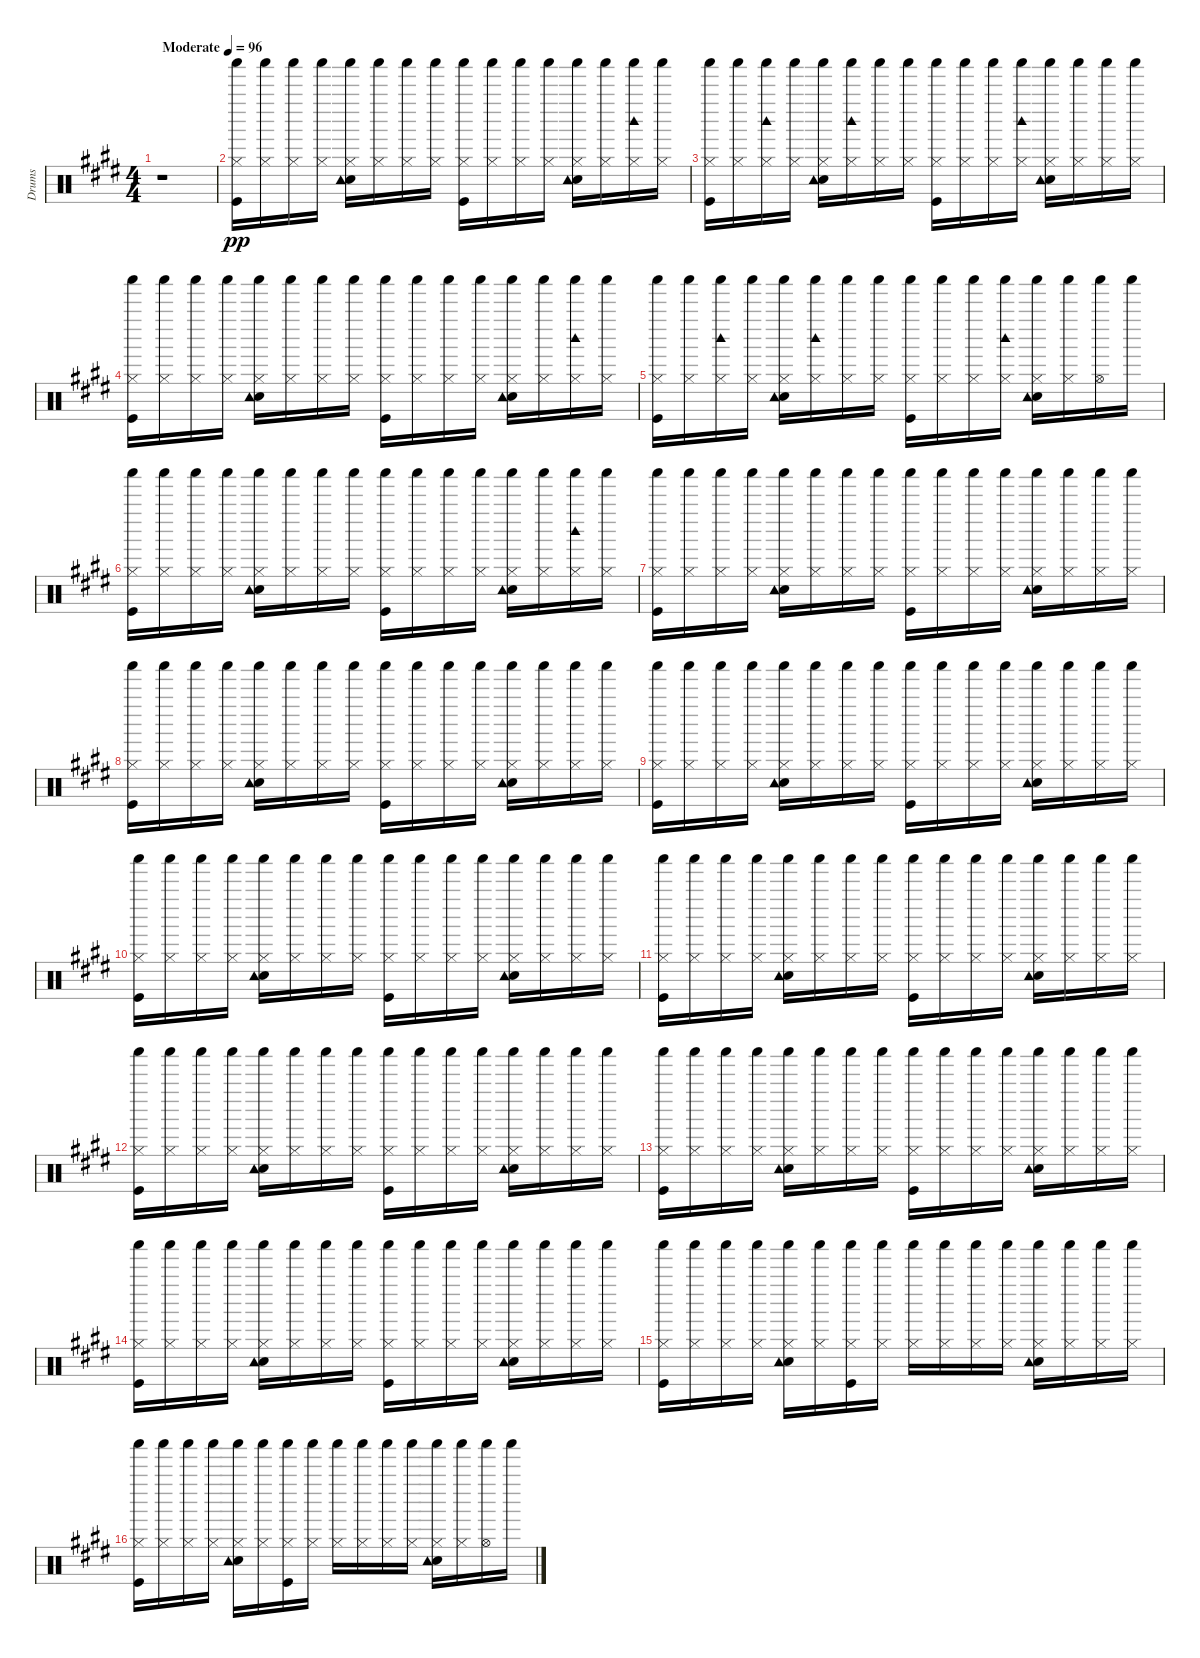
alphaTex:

\track ("Drums" "Drums") {instrument percussion}
\staff {score}
\articulation defaults
\ts (4 4)
\tempo (96 "Moderate")
\clef neutral
\ks e
r.1{dy pp} |
("Kick (hit)" "Hi-Hat (closed)" "Shaker (hit)").16 ("Hi-Hat (closed)" "Shaker (hit)").16 ("Hi-Hat (closed)" "Shaker (hit)").16 ("Hi-Hat (closed)" "Shaker (hit)").16 ("Electric Snare (hit)" "Hi-Hat (closed)" "Tambourine (hit)" "Shaker (hit)").16 ("Hi-Hat (closed)" "Shaker (hit)").16 ("Hi-Hat (closed)" "Shaker (hit)").16 ("Hi-Hat (closed)" "Shaker (hit)").16 ("Kick (hit)" "Hi-Hat (closed)" "Shaker (hit)").16 ("Hi-Hat (closed)" "Shaker (hit)").16 ("Hi-Hat (closed)" "Shaker (hit)").16 ("Hi-Hat (closed)" "Shaker (hit)").16 ("Electric Snare (hit)" "Hi-Hat (closed)" "Tambourine (hit)" "Shaker (hit)").16 ("Hi-Hat (closed)" "Shaker (hit)").16 ("Hi-Hat (closed)" "Woodblock high (hit)" "Shaker (hit)").16 ("Hi-Hat (closed)" "Shaker (hit)").16 |
("Kick (hit)" "Hi-Hat (closed)" "Shaker (hit)").16 ("Hi-Hat (closed)" "Shaker (hit)").16 ("Hi-Hat (closed)" "Woodblock high (hit)" "Shaker (hit)").16 ("Hi-Hat (closed)" "Shaker (hit)").16 ("Electric Snare (hit)" "Hi-Hat (closed)" "Tambourine (hit)" "Shaker (hit)").16 ("Hi-Hat (closed)" "Woodblock high (hit)" "Shaker (hit)").16 ("Hi-Hat (closed)" "Shaker (hit)").16 ("Hi-Hat (closed)" "Shaker (hit)").16 ("Kick (hit)" "Hi-Hat (closed)" "Shaker (hit)").16 ("Hi-Hat (closed)" "Shaker (hit)").16 ("Hi-Hat (closed)" "Shaker (hit)").16 ("Hi-Hat (closed)" "Woodblock high (hit)" "Shaker (hit)").16 ("Electric Snare (hit)" "Hi-Hat (closed)" "Tambourine (hit)" "Shaker (hit)").16 ("Hi-Hat (closed)" "Shaker (hit)").16 ("Hi-Hat (closed)" "Shaker (hit)").16 ("Hi-Hat (closed)" "Shaker (hit)").16 |
("Kick (hit)" "Hi-Hat (closed)" "Shaker (hit)").16 ("Hi-Hat (closed)" "Shaker (hit)").16 ("Hi-Hat (closed)" "Shaker (hit)").16 ("Hi-Hat (closed)" "Shaker (hit)").16 ("Electric Snare (hit)" "Hi-Hat (closed)" "Tambourine (hit)" "Shaker (hit)").16 ("Hi-Hat (closed)" "Shaker (hit)").16 ("Hi-Hat (closed)" "Shaker (hit)").16 ("Hi-Hat (closed)" "Shaker (hit)").16 ("Kick (hit)" "Hi-Hat (closed)" "Shaker (hit)").16 ("Hi-Hat (closed)" "Shaker (hit)").16 ("Hi-Hat (closed)" "Shaker (hit)").16 ("Hi-Hat (closed)" "Shaker (hit)").16 ("Electric Snare (hit)" "Hi-Hat (closed)" "Tambourine (hit)" "Shaker (hit)").16 ("Hi-Hat (closed)" "Shaker (hit)").16 ("Hi-Hat (closed)" "Woodblock high (hit)" "Shaker (hit)").16 ("Hi-Hat (closed)" "Shaker (hit)").16 |
("Kick (hit)" "Hi-Hat (closed)" "Shaker (hit)").16 ("Hi-Hat (closed)" "Shaker (hit)").16 ("Hi-Hat (closed)" "Woodblock high (hit)" "Shaker (hit)").16 ("Hi-Hat (closed)" "Shaker (hit)").16 ("Electric Snare (hit)" "Hi-Hat (closed)" "Tambourine (hit)" "Shaker (hit)").16 ("Hi-Hat (closed)" "Woodblock high (hit)" "Shaker (hit)").16 ("Hi-Hat (closed)" "Shaker (hit)").16 ("Hi-Hat (closed)" "Shaker (hit)").16 ("Kick (hit)" "Hi-Hat (closed)" "Shaker (hit)").16 ("Hi-Hat (closed)" "Shaker (hit)").16 ("Hi-Hat (closed)" "Shaker (hit)").16 ("Hi-Hat (closed)" "Woodblock high (hit)" "Shaker (hit)").16 ("Electric Snare (hit)" "Hi-Hat (closed)" "Tambourine (hit)" "Shaker (hit)").16 ("Hi-Hat (closed)" "Shaker (hit)").16 ("Hi-Hat (open)" "Shaker (hit)").16 "Shaker (hit)".16 |
("Kick (hit)" "Hi-Hat (closed)" "Shaker (hit)").16 ("Hi-Hat (closed)" "Shaker (hit)").16 ("Hi-Hat (closed)" "Shaker (hit)").16 ("Hi-Hat (closed)" "Shaker (hit)").16 ("Electric Snare (hit)" "Hi-Hat (closed)" "Tambourine (hit)" "Shaker (hit)").16 ("Hi-Hat (closed)" "Shaker (hit)").16 ("Hi-Hat (closed)" "Shaker (hit)").16 ("Hi-Hat (closed)" "Shaker (hit)").16 ("Kick (hit)" "Hi-Hat (closed)" "Shaker (hit)").16 ("Hi-Hat (closed)" "Shaker (hit)").16 ("Hi-Hat (closed)" "Shaker (hit)").16 ("Hi-Hat (closed)" "Shaker (hit)").16 ("Electric Snare (hit)" "Hi-Hat (closed)" "Tambourine (hit)" "Shaker (hit)").16 ("Hi-Hat (closed)" "Shaker (hit)").16 ("Hi-Hat (closed)" "Woodblock high (hit)" "Shaker (hit)").16 ("Hi-Hat (closed)" "Shaker (hit)").16 |
("Kick (hit)" "Hi-Hat (closed)" "Shaker (hit)").16 ("Hi-Hat (closed)" "Shaker (hit)").16 ("Hi-Hat (closed)" "Shaker (hit)").16 ("Hi-Hat (closed)" "Shaker (hit)").16 ("Electric Snare (hit)" "Hi-Hat (closed)" "Tambourine (hit)" "Shaker (hit)").16 ("Hi-Hat (closed)" "Shaker (hit)").16 ("Hi-Hat (closed)" "Shaker (hit)").16 ("Hi-Hat (closed)" "Shaker (hit)").16 ("Kick (hit)" "Hi-Hat (closed)" "Shaker (hit)").16 ("Hi-Hat (closed)" "Shaker (hit)").16 ("Hi-Hat (closed)" "Shaker (hit)").16 ("Hi-Hat (closed)" "Shaker (hit)").16 ("Electric Snare (hit)" "Hi-Hat (closed)" "Tambourine (hit)" "Shaker (hit)").16 ("Hi-Hat (closed)" "Shaker (hit)").16 ("Hi-Hat (closed)" "Shaker (hit)").16 ("Hi-Hat (closed)" "Shaker (hit)").16 |
("Kick (hit)" "Hi-Hat (closed)" "Shaker (hit)").16 ("Hi-Hat (closed)" "Shaker (hit)").16 ("Hi-Hat (closed)" "Shaker (hit)").16 ("Hi-Hat (closed)" "Shaker (hit)").16 ("Electric Snare (hit)" "Hi-Hat (closed)" "Tambourine (hit)" "Shaker (hit)").16 ("Hi-Hat (closed)" "Shaker (hit)").16 ("Hi-Hat (closed)" "Shaker (hit)").16 ("Hi-Hat (closed)" "Shaker (hit)").16 ("Kick (hit)" "Hi-Hat (closed)" "Shaker (hit)").16 ("Hi-Hat (closed)" "Shaker (hit)").16 ("Hi-Hat (closed)" "Shaker (hit)").16 ("Hi-Hat (closed)" "Shaker (hit)").16 ("Electric Snare (hit)" "Hi-Hat (closed)" "Tambourine (hit)" "Shaker (hit)").16 ("Hi-Hat (closed)" "Shaker (hit)").16 ("Hi-Hat (closed)" "Shaker (hit)").16 ("Hi-Hat (closed)" "Shaker (hit)").16 |
("Kick (hit)" "Hi-Hat (closed)" "Shaker (hit)").16 ("Hi-Hat (closed)" "Shaker (hit)").16 ("Hi-Hat (closed)" "Shaker (hit)").16 ("Hi-Hat (closed)" "Shaker (hit)").16 ("Electric Snare (hit)" "Hi-Hat (closed)" "Tambourine (hit)" "Shaker (hit)").16 ("Hi-Hat (closed)" "Shaker (hit)").16 ("Hi-Hat (closed)" "Shaker (hit)").16 ("Hi-Hat (closed)" "Shaker (hit)").16 ("Kick (hit)" "Hi-Hat (closed)" "Shaker (hit)").16 ("Hi-Hat (closed)" "Shaker (hit)").16 ("Hi-Hat (closed)" "Shaker (hit)").16 ("Hi-Hat (closed)" "Shaker (hit)").16 ("Electric Snare (hit)" "Hi-Hat (closed)" "Tambourine (hit)" "Shaker (hit)").16 ("Hi-Hat (closed)" "Shaker (hit)").16 ("Hi-Hat (closed)" "Shaker (hit)").16 ("Hi-Hat (closed)" "Shaker (hit)").16 |
("Kick (hit)" "Hi-Hat (closed)" "Shaker (hit)").16 ("Hi-Hat (closed)" "Shaker (hit)").16 ("Hi-Hat (closed)" "Shaker (hit)").16 ("Hi-Hat (closed)" "Shaker (hit)").16 ("Electric Snare (hit)" "Hi-Hat (closed)" "Tambourine (hit)" "Shaker (hit)").16 ("Hi-Hat (closed)" "Shaker (hit)").16 ("Hi-Hat (closed)" "Shaker (hit)").16 ("Hi-Hat (closed)" "Shaker (hit)").16 ("Kick (hit)" "Hi-Hat (closed)" "Shaker (hit)").16 ("Hi-Hat (closed)" "Shaker (hit)").16 ("Hi-Hat (closed)" "Shaker (hit)").16 ("Hi-Hat (closed)" "Shaker (hit)").16 ("Electric Snare (hit)" "Hi-Hat (closed)" "Tambourine (hit)" "Shaker (hit)").16 ("Hi-Hat (closed)" "Shaker (hit)").16 ("Hi-Hat (closed)" "Shaker (hit)").16 ("Hi-Hat (closed)" "Shaker (hit)").16 |
("Kick (hit)" "Hi-Hat (closed)" "Shaker (hit)").16 ("Hi-Hat (closed)" "Shaker (hit)").16 ("Hi-Hat (closed)" "Shaker (hit)").16 ("Hi-Hat (closed)" "Shaker (hit)").16 ("Electric Snare (hit)" "Hi-Hat (closed)" "Tambourine (hit)" "Shaker (hit)").16 ("Hi-Hat (closed)" "Shaker (hit)").16 ("Hi-Hat (closed)" "Shaker (hit)").16 ("Hi-Hat (closed)" "Shaker (hit)").16 ("Kick (hit)" "Hi-Hat (closed)" "Shaker (hit)").16 ("Hi-Hat (closed)" "Shaker (hit)").16 ("Hi-Hat (closed)" "Shaker (hit)").16 ("Hi-Hat (closed)" "Shaker (hit)").16 ("Electric Snare (hit)" "Hi-Hat (closed)" "Tambourine (hit)" "Shaker (hit)").16 ("Hi-Hat (closed)" "Shaker (hit)").16 ("Hi-Hat (closed)" "Shaker (hit)").16 ("Hi-Hat (closed)" "Shaker (hit)").16 |
("Kick (hit)" "Hi-Hat (closed)" "Shaker (hit)").16 ("Hi-Hat (closed)" "Shaker (hit)").16 ("Hi-Hat (closed)" "Shaker (hit)").16 ("Hi-Hat (closed)" "Shaker (hit)").16 ("Electric Snare (hit)" "Hi-Hat (closed)" "Tambourine (hit)" "Shaker (hit)").16 ("Hi-Hat (closed)" "Shaker (hit)").16 ("Hi-Hat (closed)" "Shaker (hit)").16 ("Hi-Hat (closed)" "Shaker (hit)").16 ("Kick (hit)" "Hi-Hat (closed)" "Shaker (hit)").16 ("Hi-Hat (closed)" "Shaker (hit)").16 ("Hi-Hat (closed)" "Shaker (hit)").16 ("Hi-Hat (closed)" "Shaker (hit)").16 ("Electric Snare (hit)" "Hi-Hat (closed)" "Tambourine (hit)" "Shaker (hit)").16 ("Hi-Hat (closed)" "Shaker (hit)").16 ("Hi-Hat (closed)" "Shaker (hit)").16 ("Hi-Hat (closed)" "Shaker (hit)").16 |
("Kick (hit)" "Hi-Hat (closed)" "Shaker (hit)").16 ("Hi-Hat (closed)" "Shaker (hit)").16 ("Hi-Hat (closed)" "Shaker (hit)").16 ("Hi-Hat (closed)" "Shaker (hit)").16 ("Electric Snare (hit)" "Hi-Hat (closed)" "Tambourine (hit)" "Shaker (hit)").16 ("Hi-Hat (closed)" "Shaker (hit)").16 ("Hi-Hat (closed)" "Shaker (hit)").16 ("Hi-Hat (closed)" "Shaker (hit)").16 ("Kick (hit)" "Hi-Hat (closed)" "Shaker (hit)").16 ("Hi-Hat (closed)" "Shaker (hit)").16 ("Hi-Hat (closed)" "Shaker (hit)").16 ("Hi-Hat (closed)" "Shaker (hit)").16 ("Electric Snare (hit)" "Hi-Hat (closed)" "Tambourine (hit)" "Shaker (hit)").16 ("Hi-Hat (closed)" "Shaker (hit)").16 ("Hi-Hat (closed)" "Shaker (hit)").16 ("Hi-Hat (closed)" "Shaker (hit)").16 |
("Kick (hit)" "Hi-Hat (closed)" "Shaker (hit)").16 ("Hi-Hat (closed)" "Shaker (hit)").16 ("Hi-Hat (closed)" "Shaker (hit)").16 ("Hi-Hat (closed)" "Shaker (hit)").16 ("Electric Snare (hit)" "Hi-Hat (closed)" "Tambourine (hit)" "Shaker (hit)").16 ("Hi-Hat (closed)" "Shaker (hit)").16 ("Hi-Hat (closed)" "Shaker (hit)").16 ("Hi-Hat (closed)" "Shaker (hit)").16 ("Kick (hit)" "Hi-Hat (closed)" "Shaker (hit)").16 ("Hi-Hat (closed)" "Shaker (hit)").16 ("Hi-Hat (closed)" "Shaker (hit)").16 ("Hi-Hat (closed)" "Shaker (hit)").16 ("Electric Snare (hit)" "Hi-Hat (closed)" "Tambourine (hit)" "Shaker (hit)").16 ("Hi-Hat (closed)" "Shaker (hit)").16 ("Hi-Hat (closed)" "Shaker (hit)").16 ("Hi-Hat (closed)" "Shaker (hit)").16 |
("Kick (hit)" "Hi-Hat (closed)" "Shaker (hit)").16 ("Hi-Hat (closed)" "Shaker (hit)").16 ("Hi-Hat (closed)" "Shaker (hit)").16 ("Hi-Hat (closed)" "Shaker (hit)").16 ("Electric Snare (hit)" "Hi-Hat (closed)" "Tambourine (hit)" "Shaker (hit)").16 ("Hi-Hat (closed)" "Shaker (hit)").16 ("Kick (hit)" "Hi-Hat (closed)" "Shaker (hit)").16 ("Hi-Hat (closed)" "Shaker (hit)").16 ("Hi-Hat (closed)" "Shaker (hit)").16 ("Hi-Hat (closed)" "Shaker (hit)").16 ("Hi-Hat (closed)" "Shaker (hit)").16 ("Hi-Hat (closed)" "Shaker (hit)").16 ("Electric Snare (hit)" "Hi-Hat (closed)" "Tambourine (hit)" "Shaker (hit)").16 ("Hi-Hat (closed)" "Shaker (hit)").16 ("Hi-Hat (closed)" "Shaker (hit)").16 ("Hi-Hat (closed)" "Shaker (hit)").16 |
("Kick (hit)" "Hi-Hat (closed)" "Shaker (hit)").16 ("Hi-Hat (closed)" "Shaker (hit)").16 ("Hi-Hat (closed)" "Shaker (hit)").16 ("Hi-Hat (closed)" "Shaker (hit)").16 ("Electric Snare (hit)" "Hi-Hat (closed)" "Tambourine (hit)" "Shaker (hit)").16 ("Hi-Hat (closed)" "Shaker (hit)").16 ("Kick (hit)" "Hi-Hat (closed)" "Shaker (hit)").16 ("Hi-Hat (closed)" "Shaker (hit)").16 ("Hi-Hat (closed)" "Shaker (hit)").16 ("Hi-Hat (closed)" "Shaker (hit)").16 ("Hi-Hat (closed)" "Shaker (hit)").16 ("Hi-Hat (closed)" "Shaker (hit)").16 ("Electric Snare (hit)" "Hi-Hat (closed)" "Tambourine (hit)" "Shaker (hit)").16 ("Hi-Hat (closed)" "Shaker (hit)").16 ("Hi-Hat (open)" "Shaker (hit)").16 "Shaker (hit)".16
